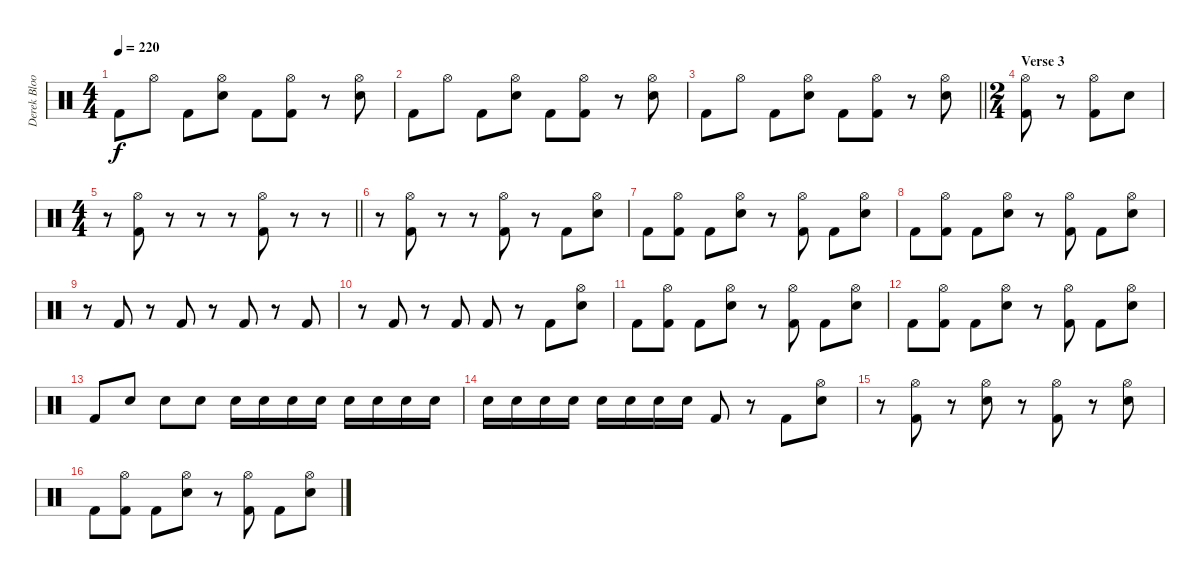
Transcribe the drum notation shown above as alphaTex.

\track ("Derek Bloom - Drums" "Derek Bloo") {instrument percussion}
\staff {score}
\articulation defaults
\ts (4 4)
\tempo 220
\clef neutral
\ks c "Kick (hit) 2".8{dy f} "Hi-Hat (open)".8 "Kick (hit) 2".8
("Hi-Hat (open)" "Electric Snare (hit)").8 "Kick (hit) 2".8 ("Hi-Hat (open)" "Kick (hit) 2").8 r.8 ("Hi-Hat (open)" "Electric Snare (hit)").8 |
"Kick (hit) 2".8 "Hi-Hat (open)".8 "Kick (hit) 2".8 ("Hi-Hat (open)" "Electric Snare (hit)").8 "Kick (hit) 2".8 ("Hi-Hat (open)" "Kick (hit) 2").8 r.8 ("Hi-Hat (open)" "Electric Snare (hit)").8 |
\barLineRight lightlight "Kick (hit) 2".8 "Hi-Hat (open)".8 "Kick (hit) 2".8
("Hi-Hat (open)" "Electric Snare (hit)").8 "Kick (hit) 2".8 ("Hi-Hat (open)" "Kick (hit) 2").8 r.8 ("Hi-Hat (open)" "Electric Snare (hit)").8 |
\ts (2 4)
\section ("" "Verse 3")
("Hi-Hat (open)" "Kick (hit) 2").8 r.8 ("Hi-Hat (open)" "Kick (hit) 2").8 "Electric Snare (hit)".8 |
\ts (4 4)
\barLineRight lightlight
r.8 ("Hi-Hat (open)" "Kick (hit) 2").8 r.8 r.8 r.8 ("Hi-Hat (open)" "Kick (hit) 2").8 r.8 r.8 |
\section ("" "")
r.8 ("Hi-Hat (open)" "Kick (hit) 2").8 r.8 r.8 ("Hi-Hat (open)" "Kick (hit) 2").8 r.8 "Kick (hit) 2".8 ("Hi-Hat (open)" "Electric Snare (hit)").8 |
"Kick (hit) 2".8 ("Hi-Hat (open)" "Kick (hit) 2").8 "Kick (hit) 2".8 ("Hi-Hat (open)" "Electric Snare (hit)").8 r.8 ("Hi-Hat (open)" "Kick (hit) 2").8 "Kick (hit) 2".8 ("Hi-Hat (open)" "Electric Snare (hit)").8 |
"Kick (hit) 2".8 ("Hi-Hat (open)" "Kick (hit) 2").8 "Kick (hit) 2".8 ("Hi-Hat (open)" "Electric Snare (hit)").8 r.8 ("Hi-Hat (open)" "Kick (hit) 2").8 "Kick (hit) 2".8 ("Hi-Hat (open)" "Electric Snare (hit)").8 |
r.8 "Kick (hit) 2".8 r.8 "Kick (hit) 2".8 r.8 "Kick (hit) 2".8 r.8 "Kick (hit) 2".8 |
r.8 "Kick (hit) 2".8 r.8 "Kick (hit) 2".8 "Kick (hit) 2".8 r.8 "Kick (hit) 2".8 ("Hi-Hat (open)" "Electric Snare (hit)").8 |
"Kick (hit) 2".8 ("Hi-Hat (open)" "Kick (hit) 2").8 "Kick (hit) 2".8 ("Hi-Hat (open)" "Electric Snare (hit)").8 r.8 ("Hi-Hat (open)" "Kick (hit) 2").8 "Kick (hit) 2".8 ("Hi-Hat (open)" "Electric Snare (hit)").8 |
"Kick (hit) 2".8 ("Hi-Hat (open)" "Kick (hit) 2").8 "Kick (hit) 2".8 ("Hi-Hat (open)" "Electric Snare (hit)").8 r.8 ("Hi-Hat (open)" "Kick (hit) 2").8 "Kick (hit) 2".8 ("Hi-Hat (open)" "Electric Snare (hit)").8 |
"Kick (hit) 2".8 "Electric Snare (hit)".8 "Electric Snare (hit)".8 "Electric Snare (hit)".8 "Electric Snare (hit)".16 "Electric Snare (hit)".16 "Electric Snare (hit)".16 "Electric Snare (hit)".16 "Electric Snare (hit)".16 "Electric Snare (hit)".16 "Electric Snare (hit)".16 "Electric Snare (hit)".16 |
"Electric Snare (hit)".16 "Electric Snare (hit)".16 "Electric Snare (hit)".16 "Electric Snare (hit)".16 "Electric Snare (hit)".16 "Electric Snare (hit)".16 "Electric Snare (hit)".16 "Electric Snare (hit)".16 "Kick (hit) 2".8 r.8 "Kick (hit) 2".8 ("Hi-Hat (open)" "Electric Snare (hit)").8 |
r.8 ("Hi-Hat (open)" "Kick (hit) 2").8 r.8 ("Hi-Hat (open)" "Electric Snare (hit)").8 r.8 ("Hi-Hat (open)" "Kick (hit) 2").8 r.8 ("Hi-Hat (open)" "Electric Snare (hit)").8 |
"Kick (hit) 2".8 ("Hi-Hat (open)" "Kick (hit) 2").8 "Kick (hit) 2".8 ("Hi-Hat (open)" "Electric Snare (hit)").8 r.8 ("Hi-Hat (open)" "Kick (hit) 2").8 "Kick (hit) 2".8 ("Hi-Hat (open)" "Electric Snare (hit)").8
